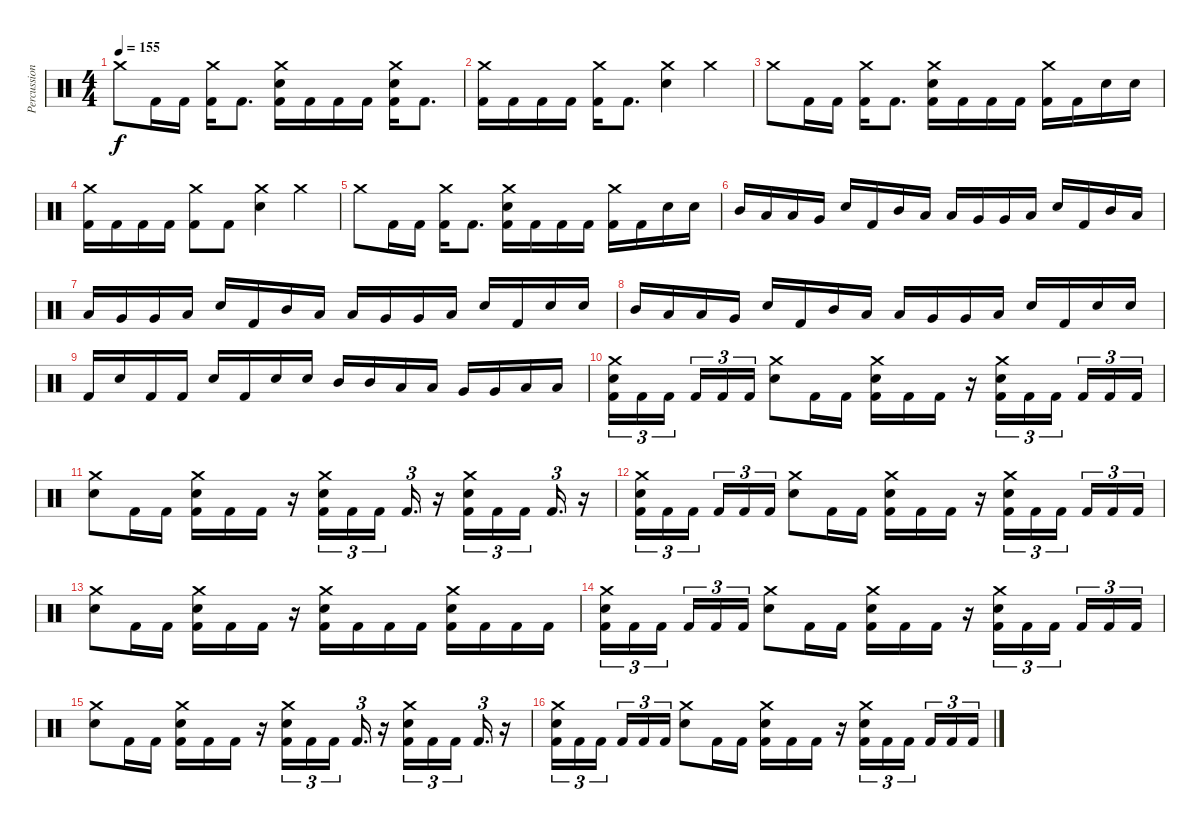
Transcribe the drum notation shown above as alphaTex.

\track ("Percussion" "Percussion") {instrument percussion}
\staff {score}
\articulation defaults
\ts (4 4)
\tempo 155
\clef neutral
\ks c "Crash medium (hit)".8{dy f} "Kick (hit) 2".16 "Kick (hit) 2".16
("Crash medium (hit)" "Kick (hit) 2").16 "Kick (hit) 2".8{d} ("Electric Snare (hit)" "Crash medium (hit)" "Kick (hit) 2").16 "Kick (hit) 2".16 "Kick (hit) 2".16 "Kick (hit) 2".16 ("Electric Snare (hit)" "Crash medium (hit)" "Kick (hit) 2").16 "Kick (hit) 2".8{d} |
("Crash medium (hit)" "Kick (hit) 2").16 "Kick (hit) 2".16 "Kick (hit) 2".16 "Kick (hit) 2".16 ("Crash medium (hit)" "Kick (hit) 2").16 "Kick (hit) 2".8{d} ("Electric Snare (hit)" "Crash medium (hit)").4 "Crash medium (hit)".4 |
"Crash medium (hit)".8 "Kick (hit) 2".16 "Kick (hit) 2".16 ("Crash medium (hit)" "Kick (hit) 2").16 "Kick (hit) 2".8{d} ("Electric Snare (hit)" "Crash medium (hit)" "Kick (hit) 2").16 "Kick (hit) 2".16 "Kick (hit) 2".16 "Kick (hit) 2".16 ("Crash medium (hit)" "Kick (hit) 2").16 "Kick (hit) 2".16 "Electric Snare (hit)".16 "Electric Snare (hit)".16 |
("Crash medium (hit)" "Kick (hit) 2").16 "Kick (hit) 2".16 "Kick (hit) 2".16 "Kick (hit) 2".16 ("Crash medium (hit)" "Kick (hit) 2").8 "Kick (hit) 2".8 ("Electric Snare (hit)" "Crash medium (hit)").4 "Crash medium (hit)".4 |
"Crash medium (hit)".8 "Kick (hit) 2".16 "Kick (hit) 2".16 ("Crash medium (hit)" "Kick (hit) 2").16 "Kick (hit) 2".8{d} ("Electric Snare (hit)" "Crash medium (hit)" "Kick (hit) 2").16 "Kick (hit) 2".16 "Kick (hit) 2".16 "Kick (hit) 2".16 ("Crash medium (hit)" "Kick (hit) 2").16 "Kick (hit) 2".16 "Electric Snare (hit)".16 "Electric Snare (hit)".16 |
"Mid Tom (hit)".16 "Low Tom (hit)".16 "Low Tom (hit)".16 "Very Low Tom (hit)".16 "Electric Snare (hit)".16 "Kick (hit) 2".16 "Mid Tom (hit)".16 "Low Tom (hit)".16 "Low Tom (hit)".16 "Very Low Tom (hit)".16 "Very Low Tom (hit)".16 "Low Floor Tom (hit)".16 "Electric Snare (hit)".16 "Kick (hit) 2".16 "Mid Tom (hit)".16 "Low Tom (hit)".16 |
"Low Tom (hit)".16 "Very Low Tom (hit)".16 "Very Low Tom (hit)".16 "Low Floor Tom (hit)".16 "Electric Snare (hit)".16 "Kick (hit) 2".16 "Mid Tom (hit)".16 "Low Tom (hit)".16 "Low Tom (hit)".16 "Very Low Tom (hit)".16 "Very Low Tom (hit)".16 "Low Floor Tom (hit)".16 "Electric Snare (hit)".16 "Kick (hit) 2".16 "Electric Snare (hit)".16 "Electric Snare (hit)".16 |
"Mid Tom (hit)".16 "Low Tom (hit)".16 "Low Tom (hit)".16 "Very Low Tom (hit)".16 "Electric Snare (hit)".16 "Kick (hit) 2".16 "Mid Tom (hit)".16 "Low Tom (hit)".16 "Low Tom (hit)".16 "Very Low Tom (hit)".16 "Very Low Tom (hit)".16 "Low Floor Tom (hit)".16 "Electric Snare (hit)".16 "Kick (hit) 2".16 "Electric Snare (hit)".16 "Electric Snare (hit)".16 |
"Kick (hit) 2".16 "Electric Snare (hit)".16 "Kick (hit) 2".16 "Kick (hit) 2".16 "Electric Snare (hit)".16 "Kick (hit) 2".16 "Electric Snare (hit)".16 "Electric Snare (hit)".16 "Mid Tom (hit)".16 "Mid Tom (hit)".16 "Low Tom (hit)".16 "Low Tom (hit)".16 "Very Low Tom (hit)".16 "Very Low Tom (hit)".16 "Low Floor Tom (hit)".16 "Low Floor Tom (hit)".16 |
("Electric Snare (hit)" "Crash medium (hit)" "Kick (hit) 2").16{tu (3 2)} "Kick (hit) 2".16{tu (3 2)} "Kick (hit) 2".16{tu (3 2) beam splitsecondary} "Kick (hit) 2".16{tu (3 2)} "Kick (hit) 2".16{tu (3 2)} "Kick (hit) 2".16{tu (3 2)} ("Electric Snare (hit)" "Crash medium (hit)").8 "Kick (hit) 2".16 "Kick (hit) 2".16 ("Electric Snare (hit)" "Crash medium (hit)" "Kick (hit) 2").16 "Kick (hit) 2".16 "Kick (hit) 2".16 r.16 ("Electric Snare (hit)" "Crash medium (hit)" "Kick (hit) 2").16{tu (3 2)} "Kick (hit) 2".16{tu (3 2)} "Kick (hit) 2".16{tu (3 2) beam splitsecondary} "Kick (hit) 2".16{tu (3 2)} "Kick (hit) 2".16{tu (3 2)} "Kick (hit) 2".16{tu (3 2)} |
("Electric Snare (hit)" "Crash medium (hit)").8 "Kick (hit) 2".16 "Kick (hit) 2".16 ("Electric Snare (hit)" "Crash medium (hit)" "Kick (hit) 2").16 "Kick (hit) 2".16 "Kick (hit) 2".16 r.16 ("Electric Snare (hit)" "Crash medium (hit)" "Kick (hit) 2").16{tu (3 2)} "Kick (hit) 2".16{tu (3 2)} "Kick (hit) 2".16{tu (3 2) beam splitsecondary} "Kick (hit) 2".16{d tu (3 2)} r.16 ("Electric Snare (hit)" "Crash medium (hit)" "Kick (hit) 2").16{tu (3 2)} "Kick (hit) 2".16{tu (3 2)} "Kick (hit) 2".16{tu (3 2) beam splitsecondary} "Kick (hit) 2".16{d tu (3 2)} r.16 |
("Electric Snare (hit)" "Crash medium (hit)" "Kick (hit) 2").16{tu (3 2)} "Kick (hit) 2".16{tu (3 2)} "Kick (hit) 2".16{tu (3 2) beam splitsecondary} "Kick (hit) 2".16{tu (3 2)} "Kick (hit) 2".16{tu (3 2)} "Kick (hit) 2".16{tu (3 2)} ("Electric Snare (hit)" "Crash medium (hit)").8 "Kick (hit) 2".16 "Kick (hit) 2".16 ("Electric Snare (hit)" "Crash medium (hit)" "Kick (hit) 2").16 "Kick (hit) 2".16 "Kick (hit) 2".16 r.16 ("Electric Snare (hit)" "Crash medium (hit)" "Kick (hit) 2").16{tu (3 2)} "Kick (hit) 2".16{tu (3 2)} "Kick (hit) 2".16{tu (3 2) beam splitsecondary} "Kick (hit) 2".16{tu (3 2)} "Kick (hit) 2".16{tu (3 2)} "Kick (hit) 2".16{tu (3 2)} |
("Electric Snare (hit)" "Crash medium (hit)").8 "Kick (hit) 2".16 "Kick (hit) 2".16 ("Electric Snare (hit)" "Crash medium (hit)" "Kick (hit) 2").16 "Kick (hit) 2".16 "Kick (hit) 2".16 r.16 ("Electric Snare (hit)" "Crash medium (hit)" "Kick (hit) 2").16 "Kick (hit) 2".16 "Kick (hit) 2".16 "Kick (hit) 2".16 ("Electric Snare (hit)" "Crash medium (hit)" "Kick (hit) 2").16 "Kick (hit) 2".16 "Kick (hit) 2".16 "Kick (hit) 2".16 |
("Electric Snare (hit)" "Crash medium (hit)" "Kick (hit) 2").16{tu (3 2)} "Kick (hit) 2".16{tu (3 2)} "Kick (hit) 2".16{tu (3 2) beam splitsecondary} "Kick (hit) 2".16{tu (3 2)} "Kick (hit) 2".16{tu (3 2)} "Kick (hit) 2".16{tu (3 2)} ("Electric Snare (hit)" "Crash medium (hit)").8 "Kick (hit) 2".16 "Kick (hit) 2".16 ("Electric Snare (hit)" "Crash medium (hit)" "Kick (hit) 2").16 "Kick (hit) 2".16 "Kick (hit) 2".16 r.16 ("Electric Snare (hit)" "Crash medium (hit)" "Kick (hit) 2").16{tu (3 2)} "Kick (hit) 2".16{tu (3 2)} "Kick (hit) 2".16{tu (3 2) beam splitsecondary} "Kick (hit) 2".16{tu (3 2)} "Kick (hit) 2".16{tu (3 2)} "Kick (hit) 2".16{tu (3 2)} |
("Electric Snare (hit)" "Crash medium (hit)").8 "Kick (hit) 2".16 "Kick (hit) 2".16 ("Electric Snare (hit)" "Crash medium (hit)" "Kick (hit) 2").16 "Kick (hit) 2".16 "Kick (hit) 2".16 r.16 ("Electric Snare (hit)" "Crash medium (hit)" "Kick (hit) 2").16{tu (3 2)} "Kick (hit) 2".16{tu (3 2)} "Kick (hit) 2".16{tu (3 2) beam splitsecondary} "Kick (hit) 2".16{d tu (3 2)} r.16 ("Electric Snare (hit)" "Crash medium (hit)" "Kick (hit) 2").16{tu (3 2)} "Kick (hit) 2".16{tu (3 2)} "Kick (hit) 2".16{tu (3 2) beam splitsecondary} "Kick (hit) 2".16{d tu (3 2)} r.16 |
("Electric Snare (hit)" "Crash medium (hit)" "Kick (hit) 2").16{tu (3 2)} "Kick (hit) 2".16{tu (3 2)} "Kick (hit) 2".16{tu (3 2) beam splitsecondary} "Kick (hit) 2".16{tu (3 2)} "Kick (hit) 2".16{tu (3 2)} "Kick (hit) 2".16{tu (3 2)} ("Electric Snare (hit)" "Crash medium (hit)").8 "Kick (hit) 2".16 "Kick (hit) 2".16 ("Electric Snare (hit)" "Crash medium (hit)" "Kick (hit) 2").16 "Kick (hit) 2".16 "Kick (hit) 2".16 r.16 ("Electric Snare (hit)" "Crash medium (hit)" "Kick (hit) 2").16{tu (3 2)} "Kick (hit) 2".16{tu (3 2)} "Kick (hit) 2".16{tu (3 2) beam splitsecondary} "Kick (hit) 2".16{tu (3 2)} "Kick (hit) 2".16{tu (3 2)} "Kick (hit) 2".16{tu (3 2)}
